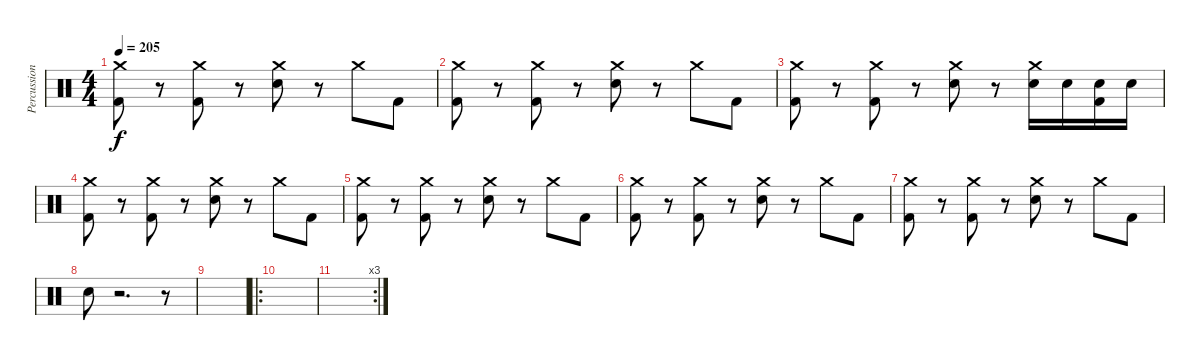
\track ("Percussion" "Percussion") {instrument percussion}
\staff {score}
\articulation defaults
\ts (4 4)
\tempo 205
\clef neutral
\ks c
("Crash medium (hit)" "Kick (hit) 2").8{dy f} r.8 ("Crash medium (hit)" "Kick (hit) 2").8 r.8 ("Crash medium (hit)" "Electric Snare (hit)").8 r.8 "Crash medium (hit)".8 "Kick (hit) 2".8 |
("Crash medium (hit)" "Kick (hit) 2").8 r.8 ("Crash medium (hit)" "Kick (hit) 2").8 r.8 ("Crash medium (hit)" "Electric Snare (hit)").8 r.8 "Crash medium (hit)".8 "Kick (hit) 2".8 |
("Crash medium (hit)" "Kick (hit) 2").8 r.8 ("Crash medium (hit)" "Kick (hit) 2").8 r.8 ("Crash medium (hit)" "Electric Snare (hit)").8 r.8 ("Crash medium (hit)" "Electric Snare (hit)").16 "Electric Snare (hit)".16 ("Electric Snare (hit)" "Kick (hit) 2").16 "Electric Snare (hit)".16 |
("Crash medium (hit)" "Kick (hit) 2").8 r.8 ("Crash medium (hit)" "Kick (hit) 2").8 r.8 ("Crash medium (hit)" "Electric Snare (hit)").8 r.8 "Crash medium (hit)".8 "Kick (hit) 2".8 |
("Crash medium (hit)" "Kick (hit) 2").8 r.8 ("Crash medium (hit)" "Kick (hit) 2").8 r.8 ("Crash medium (hit)" "Electric Snare (hit)").8 r.8 "Crash medium (hit)".8 "Kick (hit) 2".8 |
("Crash medium (hit)" "Kick (hit) 2").8 r.8 ("Crash medium (hit)" "Kick (hit) 2").8 r.8 ("Crash medium (hit)" "Electric Snare (hit)").8 r.8 "Crash medium (hit)".8 "Kick (hit) 2".8 |
("Crash medium (hit)" "Kick (hit) 2").8 r.8 ("Crash medium (hit)" "Kick (hit) 2").8 r.8 ("Crash medium (hit)" "Electric Snare (hit)").8 r.8 "Crash medium (hit)".8 "Kick (hit) 2".8 |
"Electric Snare (hit)".8 r.2{d} r.8 |
|
\ro
|
\rc 3
